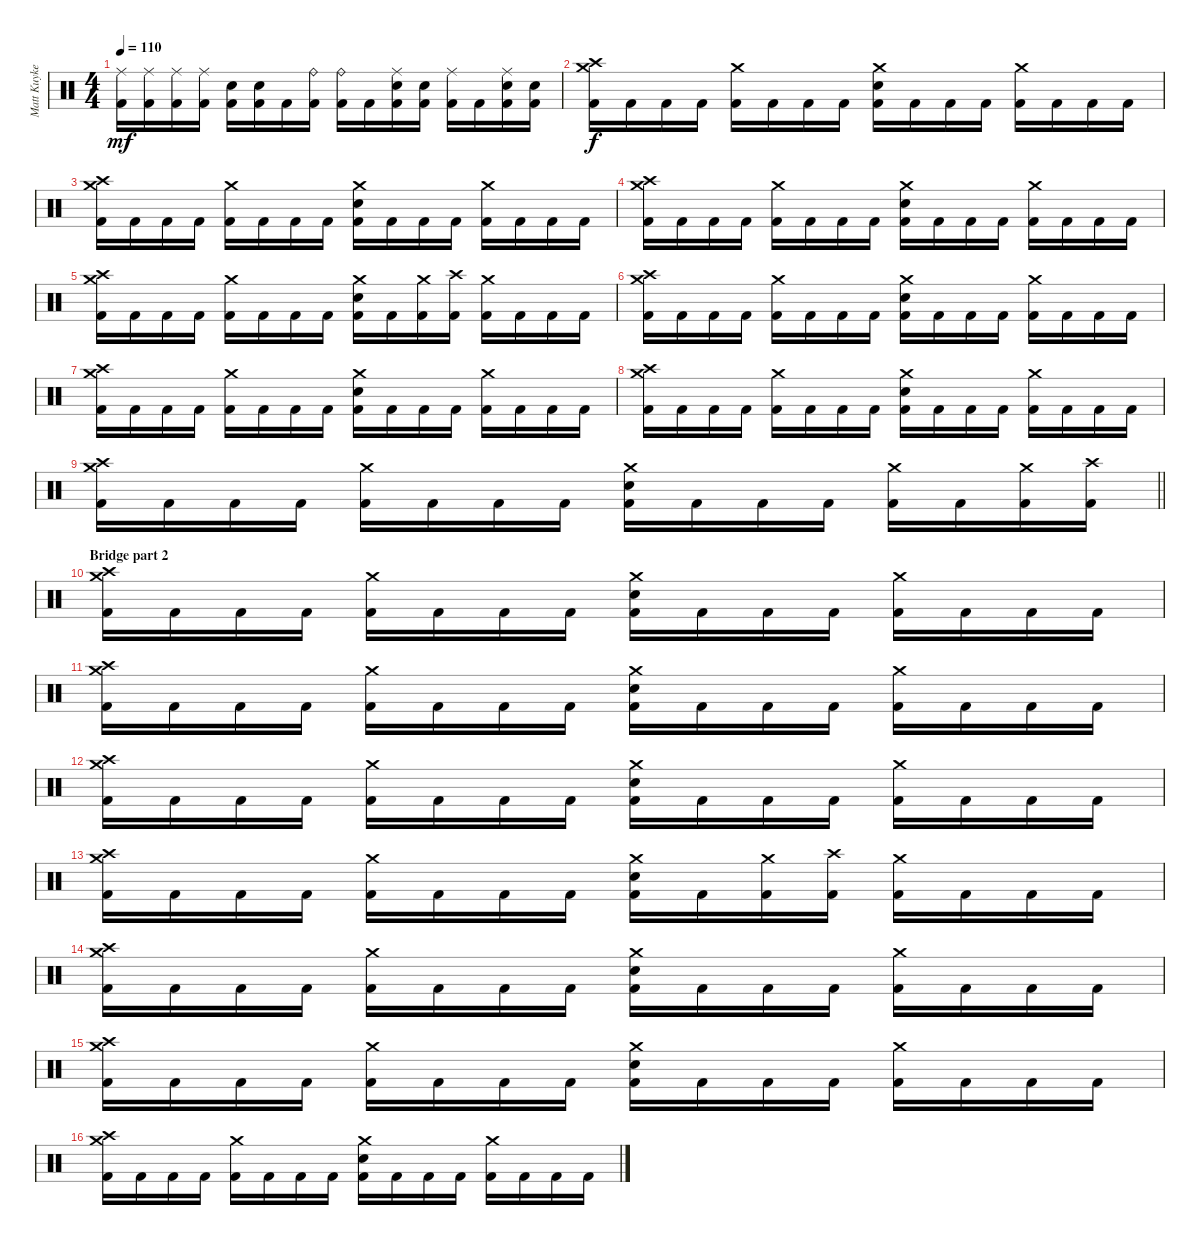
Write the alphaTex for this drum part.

\track ("Matt Kuykendall" "Matt Kuyke") {instrument percussion}
\staff {score}
\articulation defaults
\ts (4 4)
\tempo 110
\clef neutral
\ks c
("Ride (middle)" "Kick (hit) 2").16{dy mf} ("Ride (middle)" "Kick (hit) 2").16 ("Ride (middle)" "Kick (hit) 2").16 ("Ride (middle)" "Kick (hit) 2").16 ("Electric Snare (hit)" "Kick (hit) 2").16 ("Electric Snare (hit)" "Kick (hit) 2").16 "Kick (hit) 2".16 ("Ride (bell)" "Kick (hit) 2").16 ("Ride (bell)" "Kick (hit) 2").16 "Kick (hit) 2".16 ("Ride (middle)" "Electric Snare (hit)" "Kick (hit) 2").16 ("Electric Snare (hit)" "Kick (hit) 2").16 ("Ride (middle)" "Kick (hit) 2").16 "Kick (hit) 2".16 ("Ride (middle)" "Electric Snare (hit)" "Kick (hit) 2").16 ("Electric Snare (hit)" "Kick (hit) 2").16 |
("Crash medium (hit)" "Crash high (hit)" "Kick (hit) 2").16{dy f} "Kick (hit) 2".16 "Kick (hit) 2".16 "Kick (hit) 2".16 ("Crash medium (hit)" "Kick (hit) 2").16 "Kick (hit) 2".16 "Kick (hit) 2".16 "Kick (hit) 2".16 ("Crash medium (hit)" "Electric Snare (hit)" "Kick (hit) 2").16 "Kick (hit) 2".16 "Kick (hit) 2".16 "Kick (hit) 2".16 ("Crash medium (hit)" "Kick (hit) 2").16 "Kick (hit) 2".16 "Kick (hit) 2".16 "Kick (hit) 2".16 |
("Crash medium (hit)" "Crash high (hit)" "Kick (hit) 2").16 "Kick (hit) 2".16 "Kick (hit) 2".16 "Kick (hit) 2".16 ("Crash medium (hit)" "Kick (hit) 2").16 "Kick (hit) 2".16 "Kick (hit) 2".16 "Kick (hit) 2".16 ("Crash medium (hit)" "Electric Snare (hit)" "Kick (hit) 2").16 "Kick (hit) 2".16 "Kick (hit) 2".16 "Kick (hit) 2".16 ("Crash medium (hit)" "Kick (hit) 2").16 "Kick (hit) 2".16 "Kick (hit) 2".16 "Kick (hit) 2".16 |
("Crash medium (hit)" "Crash high (hit)" "Kick (hit) 2").16 "Kick (hit) 2".16 "Kick (hit) 2".16 "Kick (hit) 2".16 ("Crash medium (hit)" "Kick (hit) 2").16 "Kick (hit) 2".16 "Kick (hit) 2".16 "Kick (hit) 2".16 ("Crash medium (hit)" "Electric Snare (hit)" "Kick (hit) 2").16 "Kick (hit) 2".16 "Kick (hit) 2".16 "Kick (hit) 2".16 ("Crash medium (hit)" "Kick (hit) 2").16 "Kick (hit) 2".16 "Kick (hit) 2".16 "Kick (hit) 2".16 |
("Crash medium (hit)" "Crash high (hit)" "Kick (hit) 2").16 "Kick (hit) 2".16 "Kick (hit) 2".16 "Kick (hit) 2".16 ("Crash medium (hit)" "Kick (hit) 2").16 "Kick (hit) 2".16 "Kick (hit) 2".16 "Kick (hit) 2".16 ("Crash medium (hit)" "Electric Snare (hit)" "Kick (hit) 2").16 "Kick (hit) 2".16 ("Crash medium (hit)" "Kick (hit) 2").16 ("Crash high (hit)" "Kick (hit) 2").16 ("Crash medium (hit)" "Kick (hit) 2").16 "Kick (hit) 2".16 "Kick (hit) 2".16 "Kick (hit) 2".16 |
("Crash medium (hit)" "Crash high (hit)" "Kick (hit) 2").16 "Kick (hit) 2".16 "Kick (hit) 2".16 "Kick (hit) 2".16 ("Crash medium (hit)" "Kick (hit) 2").16 "Kick (hit) 2".16 "Kick (hit) 2".16 "Kick (hit) 2".16 ("Crash medium (hit)" "Electric Snare (hit)" "Kick (hit) 2").16 "Kick (hit) 2".16 "Kick (hit) 2".16 "Kick (hit) 2".16 ("Crash medium (hit)" "Kick (hit) 2").16 "Kick (hit) 2".16 "Kick (hit) 2".16 "Kick (hit) 2".16 |
("Crash medium (hit)" "Crash high (hit)" "Kick (hit) 2").16 "Kick (hit) 2".16 "Kick (hit) 2".16 "Kick (hit) 2".16 ("Crash medium (hit)" "Kick (hit) 2").16 "Kick (hit) 2".16 "Kick (hit) 2".16 "Kick (hit) 2".16 ("Crash medium (hit)" "Electric Snare (hit)" "Kick (hit) 2").16 "Kick (hit) 2".16 "Kick (hit) 2".16 "Kick (hit) 2".16 ("Crash medium (hit)" "Kick (hit) 2").16 "Kick (hit) 2".16 "Kick (hit) 2".16 "Kick (hit) 2".16 |
("Crash medium (hit)" "Crash high (hit)" "Kick (hit) 2").16 "Kick (hit) 2".16 "Kick (hit) 2".16 "Kick (hit) 2".16 ("Crash medium (hit)" "Kick (hit) 2").16 "Kick (hit) 2".16 "Kick (hit) 2".16 "Kick (hit) 2".16 ("Crash medium (hit)" "Electric Snare (hit)" "Kick (hit) 2").16 "Kick (hit) 2".16 "Kick (hit) 2".16 "Kick (hit) 2".16 ("Crash medium (hit)" "Kick (hit) 2").16 "Kick (hit) 2".16 "Kick (hit) 2".16 "Kick (hit) 2".16 |
\barLineRight lightlight
("Crash medium (hit)" "Crash high (hit)" "Kick (hit) 2").16 "Kick (hit) 2".16 "Kick (hit) 2".16 "Kick (hit) 2".16 ("Crash medium (hit)" "Kick (hit) 2").16 "Kick (hit) 2".16 "Kick (hit) 2".16 "Kick (hit) 2".16 ("Crash medium (hit)" "Electric Snare (hit)" "Kick (hit) 2").16 "Kick (hit) 2".16 "Kick (hit) 2".16 "Kick (hit) 2".16 ("Crash medium (hit)" "Kick (hit) 2").16 "Kick (hit) 2".16 ("Crash medium (hit)" "Kick (hit) 2").16 ("Crash high (hit)" "Kick (hit) 2").16 |
\section ("" "Bridge part 2")
("Crash medium (hit)" "Crash high (hit)" "Kick (hit) 2").16 "Kick (hit) 2".16 "Kick (hit) 2".16 "Kick (hit) 2".16 ("Crash medium (hit)" "Kick (hit) 2").16 "Kick (hit) 2".16 "Kick (hit) 2".16 "Kick (hit) 2".16 ("Crash medium (hit)" "Electric Snare (hit)" "Kick (hit) 2").16 "Kick (hit) 2".16 "Kick (hit) 2".16 "Kick (hit) 2".16 ("Crash medium (hit)" "Kick (hit) 2").16 "Kick (hit) 2".16 "Kick (hit) 2".16 "Kick (hit) 2".16 |
("Crash medium (hit)" "Crash high (hit)" "Kick (hit) 2").16 "Kick (hit) 2".16 "Kick (hit) 2".16 "Kick (hit) 2".16 ("Crash medium (hit)" "Kick (hit) 2").16 "Kick (hit) 2".16 "Kick (hit) 2".16 "Kick (hit) 2".16 ("Crash medium (hit)" "Electric Snare (hit)" "Kick (hit) 2").16 "Kick (hit) 2".16 "Kick (hit) 2".16 "Kick (hit) 2".16 ("Crash medium (hit)" "Kick (hit) 2").16 "Kick (hit) 2".16 "Kick (hit) 2".16 "Kick (hit) 2".16 |
("Crash medium (hit)" "Crash high (hit)" "Kick (hit) 2").16 "Kick (hit) 2".16 "Kick (hit) 2".16 "Kick (hit) 2".16 ("Crash medium (hit)" "Kick (hit) 2").16 "Kick (hit) 2".16 "Kick (hit) 2".16 "Kick (hit) 2".16 ("Crash medium (hit)" "Electric Snare (hit)" "Kick (hit) 2").16 "Kick (hit) 2".16 "Kick (hit) 2".16 "Kick (hit) 2".16 ("Crash medium (hit)" "Kick (hit) 2").16 "Kick (hit) 2".16 "Kick (hit) 2".16 "Kick (hit) 2".16 |
("Crash medium (hit)" "Crash high (hit)" "Kick (hit) 2").16 "Kick (hit) 2".16 "Kick (hit) 2".16 "Kick (hit) 2".16 ("Crash medium (hit)" "Kick (hit) 2").16 "Kick (hit) 2".16 "Kick (hit) 2".16 "Kick (hit) 2".16 ("Crash medium (hit)" "Electric Snare (hit)" "Kick (hit) 2").16 "Kick (hit) 2".16 ("Crash medium (hit)" "Kick (hit) 2").16 ("Crash high (hit)" "Kick (hit) 2").16 ("Crash medium (hit)" "Kick (hit) 2").16 "Kick (hit) 2".16 "Kick (hit) 2".16 "Kick (hit) 2".16 |
("Crash medium (hit)" "Crash high (hit)" "Kick (hit) 2").16 "Kick (hit) 2".16 "Kick (hit) 2".16 "Kick (hit) 2".16 ("Crash medium (hit)" "Kick (hit) 2").16 "Kick (hit) 2".16 "Kick (hit) 2".16 "Kick (hit) 2".16 ("Crash medium (hit)" "Electric Snare (hit)" "Kick (hit) 2").16 "Kick (hit) 2".16 "Kick (hit) 2".16 "Kick (hit) 2".16 ("Crash medium (hit)" "Kick (hit) 2").16 "Kick (hit) 2".16 "Kick (hit) 2".16 "Kick (hit) 2".16 |
("Crash medium (hit)" "Crash high (hit)" "Kick (hit) 2").16 "Kick (hit) 2".16 "Kick (hit) 2".16 "Kick (hit) 2".16 ("Crash medium (hit)" "Kick (hit) 2").16 "Kick (hit) 2".16 "Kick (hit) 2".16 "Kick (hit) 2".16 ("Crash medium (hit)" "Electric Snare (hit)" "Kick (hit) 2").16 "Kick (hit) 2".16 "Kick (hit) 2".16 "Kick (hit) 2".16 ("Crash medium (hit)" "Kick (hit) 2").16 "Kick (hit) 2".16 "Kick (hit) 2".16 "Kick (hit) 2".16 |
("Crash medium (hit)" "Crash high (hit)" "Kick (hit) 2").16 "Kick (hit) 2".16 "Kick (hit) 2".16 "Kick (hit) 2".16 ("Crash medium (hit)" "Kick (hit) 2").16 "Kick (hit) 2".16 "Kick (hit) 2".16 "Kick (hit) 2".16 ("Crash medium (hit)" "Electric Snare (hit)" "Kick (hit) 2").16 "Kick (hit) 2".16 "Kick (hit) 2".16 "Kick (hit) 2".16 ("Crash medium (hit)" "Kick (hit) 2").16 "Kick (hit) 2".16 "Kick (hit) 2".16 "Kick (hit) 2".16
